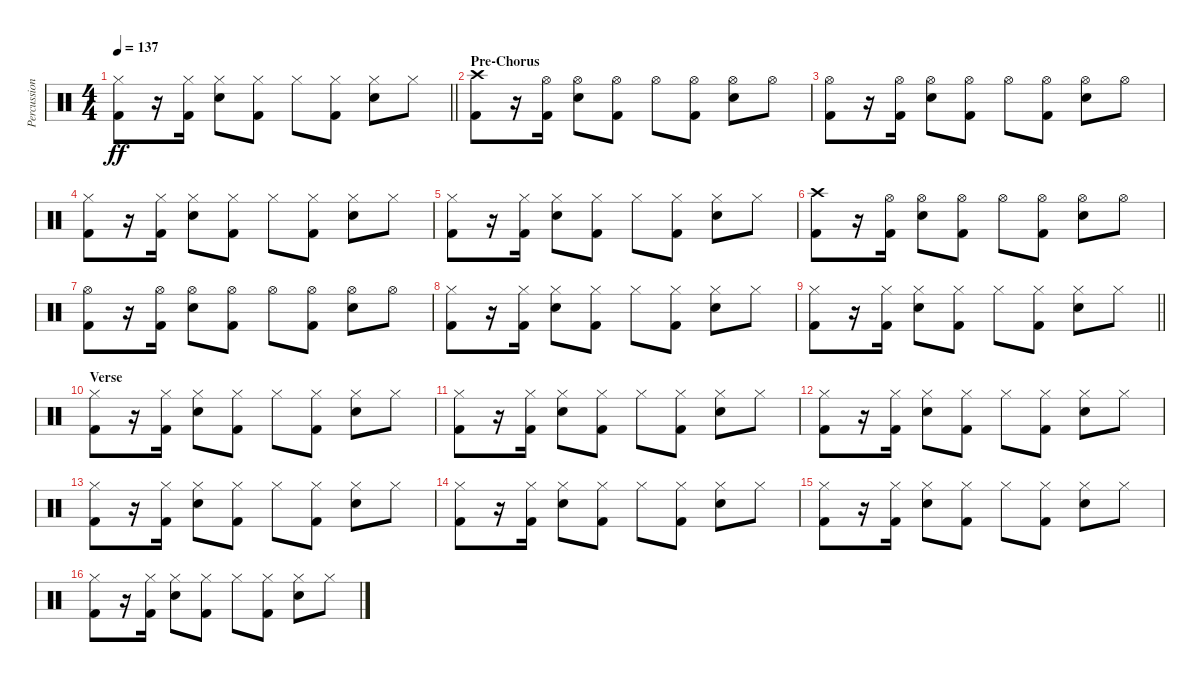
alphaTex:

\track ("Percussion" "Percussion") {instrument percussion}
\staff {score}
\articulation defaults
\ts (4 4)
\tempo 137
\clef neutral
\barLineRight lightlight
\ks c
("Hi-Hat (closed)" "Kick (hit) 2").8{dy ff} r.16 ("Hi-Hat (closed)" "Kick (hit) 2").16 ("Hi-Hat (closed)" "Electric Snare (hit)").8 ("Hi-Hat (closed)" "Kick (hit) 2").8 "Hi-Hat (closed)".8 ("Hi-Hat (closed)" "Kick (hit) 2").8 ("Hi-Hat (closed)" "Electric Snare (hit)").8 "Hi-Hat (closed)".8 |
\section ("" "Pre-Chorus")
("Crash high (hit)" "Kick (hit) 2").8 r.16 ("Hi-Hat (open)" "Kick (hit) 2").16 ("Hi-Hat (open)" "Electric Snare (hit)").8 ("Hi-Hat (open)" "Kick (hit) 2").8 "Hi-Hat (open)".8 ("Hi-Hat (open)" "Kick (hit) 2").8 ("Hi-Hat (open)" "Electric Snare (hit)").8 "Hi-Hat (open)".8 |
("Hi-Hat (open)" "Kick (hit) 2").8 r.16 ("Hi-Hat (open)" "Kick (hit) 2").16 ("Hi-Hat (open)" "Electric Snare (hit)").8 ("Hi-Hat (open)" "Kick (hit) 2").8 "Hi-Hat (open)".8 ("Hi-Hat (open)" "Kick (hit) 2").8 ("Hi-Hat (open)" "Electric Snare (hit)").8 "Hi-Hat (open)".8 |
("Hi-Hat (closed)" "Kick (hit) 2").8 r.16 ("Hi-Hat (closed)" "Kick (hit) 2").16 ("Hi-Hat (closed)" "Electric Snare (hit)").8 ("Hi-Hat (closed)" "Kick (hit) 2").8 "Hi-Hat (closed)".8 ("Hi-Hat (closed)" "Kick (hit) 2").8 ("Hi-Hat (closed)" "Electric Snare (hit)").8 "Hi-Hat (closed)".8 |
("Hi-Hat (closed)" "Kick (hit) 2").8 r.16 ("Hi-Hat (closed)" "Kick (hit) 2").16 ("Hi-Hat (closed)" "Electric Snare (hit)").8 ("Hi-Hat (closed)" "Kick (hit) 2").8 "Hi-Hat (closed)".8 ("Hi-Hat (closed)" "Kick (hit) 2").8 ("Hi-Hat (closed)" "Electric Snare (hit)").8 "Hi-Hat (closed)".8 |
("Crash high (hit)" "Kick (hit) 2").8 r.16 ("Hi-Hat (open)" "Kick (hit) 2").16 ("Hi-Hat (open)" "Electric Snare (hit)").8 ("Hi-Hat (open)" "Kick (hit) 2").8 "Hi-Hat (open)".8 ("Hi-Hat (open)" "Kick (hit) 2").8 ("Hi-Hat (open)" "Electric Snare (hit)").8 "Hi-Hat (open)".8 |
("Hi-Hat (open)" "Kick (hit) 2").8 r.16 ("Hi-Hat (open)" "Kick (hit) 2").16 ("Hi-Hat (open)" "Electric Snare (hit)").8 ("Hi-Hat (open)" "Kick (hit) 2").8 "Hi-Hat (open)".8 ("Hi-Hat (open)" "Kick (hit) 2").8 ("Hi-Hat (open)" "Electric Snare (hit)").8 "Hi-Hat (open)".8 |
("Hi-Hat (closed)" "Kick (hit) 2").8 r.16 ("Hi-Hat (closed)" "Kick (hit) 2").16 ("Hi-Hat (closed)" "Electric Snare (hit)").8 ("Hi-Hat (closed)" "Kick (hit) 2").8 "Hi-Hat (closed)".8 ("Hi-Hat (closed)" "Kick (hit) 2").8 ("Hi-Hat (closed)" "Electric Snare (hit)").8 "Hi-Hat (closed)".8 |
\barLineRight lightlight
("Hi-Hat (closed)" "Kick (hit) 2").8 r.16 ("Hi-Hat (closed)" "Kick (hit) 2").16 ("Hi-Hat (closed)" "Electric Snare (hit)").8 ("Hi-Hat (closed)" "Kick (hit) 2").8 "Hi-Hat (closed)".8 ("Hi-Hat (closed)" "Kick (hit) 2").8 ("Hi-Hat (closed)" "Electric Snare (hit)").8 "Hi-Hat (closed)".8 |
\section ("" "Verse")
("Hi-Hat (closed)" "Kick (hit) 2").8 r.16 ("Hi-Hat (closed)" "Kick (hit) 2").16 ("Hi-Hat (closed)" "Electric Snare (hit)").8 ("Hi-Hat (closed)" "Kick (hit) 2").8 "Hi-Hat (closed)".8 ("Hi-Hat (closed)" "Kick (hit) 2").8 ("Hi-Hat (closed)" "Electric Snare (hit)").8 "Hi-Hat (closed)".8 |
("Hi-Hat (closed)" "Kick (hit) 2").8 r.16 ("Hi-Hat (closed)" "Kick (hit) 2").16 ("Hi-Hat (closed)" "Electric Snare (hit)").8 ("Hi-Hat (closed)" "Kick (hit) 2").8 "Hi-Hat (closed)".8 ("Hi-Hat (closed)" "Kick (hit) 2").8 ("Hi-Hat (closed)" "Electric Snare (hit)").8 "Hi-Hat (closed)".8 |
("Hi-Hat (closed)" "Kick (hit) 2").8 r.16 ("Hi-Hat (closed)" "Kick (hit) 2").16 ("Hi-Hat (closed)" "Electric Snare (hit)").8 ("Hi-Hat (closed)" "Kick (hit) 2").8 "Hi-Hat (closed)".8 ("Hi-Hat (closed)" "Kick (hit) 2").8 ("Hi-Hat (closed)" "Electric Snare (hit)").8 "Hi-Hat (closed)".8 |
("Hi-Hat (closed)" "Kick (hit) 2").8 r.16 ("Hi-Hat (closed)" "Kick (hit) 2").16 ("Hi-Hat (closed)" "Electric Snare (hit)").8 ("Hi-Hat (closed)" "Kick (hit) 2").8 "Hi-Hat (closed)".8 ("Hi-Hat (closed)" "Kick (hit) 2").8 ("Hi-Hat (closed)" "Electric Snare (hit)").8 "Hi-Hat (closed)".8 |
("Hi-Hat (closed)" "Kick (hit) 2").8 r.16 ("Hi-Hat (closed)" "Kick (hit) 2").16 ("Hi-Hat (closed)" "Electric Snare (hit)").8 ("Hi-Hat (closed)" "Kick (hit) 2").8 "Hi-Hat (closed)".8 ("Hi-Hat (closed)" "Kick (hit) 2").8 ("Hi-Hat (closed)" "Electric Snare (hit)").8 "Hi-Hat (closed)".8 |
("Hi-Hat (closed)" "Kick (hit) 2").8 r.16 ("Hi-Hat (closed)" "Kick (hit) 2").16 ("Hi-Hat (closed)" "Electric Snare (hit)").8 ("Hi-Hat (closed)" "Kick (hit) 2").8 "Hi-Hat (closed)".8 ("Hi-Hat (closed)" "Kick (hit) 2").8 ("Hi-Hat (closed)" "Electric Snare (hit)").8 "Hi-Hat (closed)".8 |
("Hi-Hat (closed)" "Kick (hit) 2").8 r.16 ("Hi-Hat (closed)" "Kick (hit) 2").16 ("Hi-Hat (closed)" "Electric Snare (hit)").8 ("Hi-Hat (closed)" "Kick (hit) 2").8 "Hi-Hat (closed)".8 ("Hi-Hat (closed)" "Kick (hit) 2").8 ("Hi-Hat (closed)" "Electric Snare (hit)").8 "Hi-Hat (closed)".8
